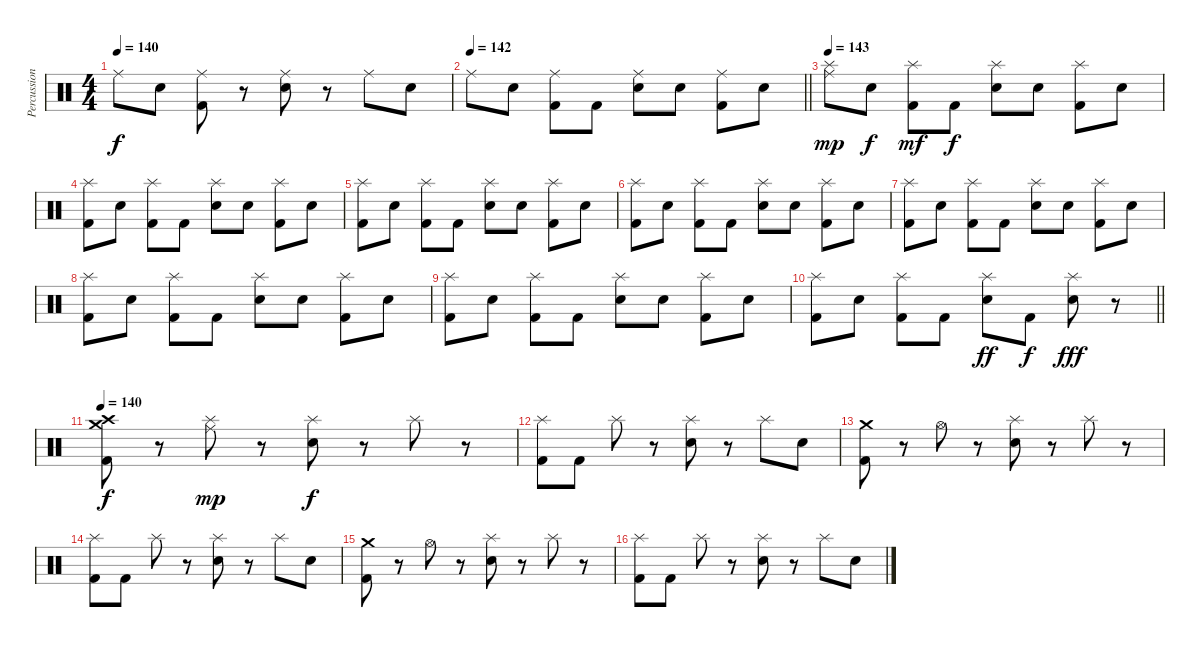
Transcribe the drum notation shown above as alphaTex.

\track ("Percussion" "Percussion") {instrument percussion}
\staff {score}
\articulation defaults
\ts (4 4)
\tempo 140
\clef neutral
\ks c "Ride (middle)".8{dy f} "Electric Snare (hit)".8
("Ride (middle)" "Kick (hit) 2").8 r.8 ("Ride (middle)" "Electric Snare (hit)").8 r.8 "Ride (middle)".8 "Electric Snare (hit)".8 |
\tempo 142
\barLineRight lightlight "Ride (middle)".8 "Electric Snare (hit)".8
("Ride (middle)" "Kick (hit) 2").8 "Kick (hit) 2".8 ("Ride (middle)" "Electric Snare (hit)").8 "Electric Snare (hit)".8 ("Ride (middle)" "Kick (hit) 2").8 "Electric Snare (hit)".8 |
\section ("" "")
\tempo 143
("Ride (middle)" "Splash (hit)").8{dy mp} "Electric Snare (hit)".8{dy f} ("Splash (hit)" "Kick (hit) 2").8{dy mf} "Kick (hit) 2".8{dy f} ("Splash (hit)" "Electric Snare (hit)").8 "Electric Snare (hit)".8 ("Splash (hit)" "Kick (hit) 2").8 "Electric Snare (hit)".8 |
("Splash (hit)" "Kick (hit) 2").8 "Electric Snare (hit)".8 ("Splash (hit)" "Kick (hit) 2").8 "Kick (hit) 2".8 ("Splash (hit)" "Electric Snare (hit)").8 "Electric Snare (hit)".8 ("Splash (hit)" "Kick (hit) 2").8 "Electric Snare (hit)".8 |
("Splash (hit)" "Kick (hit) 2").8 "Electric Snare (hit)".8 ("Splash (hit)" "Kick (hit) 2").8 "Kick (hit) 2".8 ("Splash (hit)" "Electric Snare (hit)").8 "Electric Snare (hit)".8 ("Splash (hit)" "Kick (hit) 2").8 "Electric Snare (hit)".8 |
("Splash (hit)" "Kick (hit) 2").8 "Electric Snare (hit)".8 ("Splash (hit)" "Kick (hit) 2").8 "Kick (hit) 2".8 ("Splash (hit)" "Electric Snare (hit)").8 "Electric Snare (hit)".8 ("Splash (hit)" "Kick (hit) 2").8 "Electric Snare (hit)".8 |
("Splash (hit)" "Kick (hit) 2").8 "Electric Snare (hit)".8 ("Splash (hit)" "Kick (hit) 2").8 "Kick (hit) 2".8 ("Splash (hit)" "Electric Snare (hit)").8 "Electric Snare (hit)".8 ("Splash (hit)" "Kick (hit) 2").8 "Electric Snare (hit)".8 |
("Splash (hit)" "Kick (hit) 2").8 "Electric Snare (hit)".8 ("Splash (hit)" "Kick (hit) 2").8 "Kick (hit) 2".8 ("Splash (hit)" "Electric Snare (hit)").8 "Electric Snare (hit)".8 ("Splash (hit)" "Kick (hit) 2").8 "Electric Snare (hit)".8 |
("Splash (hit)" "Kick (hit) 2").8 "Electric Snare (hit)".8 ("Splash (hit)" "Kick (hit) 2").8 "Kick (hit) 2".8 ("Splash (hit)" "Electric Snare (hit)").8 "Electric Snare (hit)".8 ("Splash (hit)" "Kick (hit) 2").8 "Electric Snare (hit)".8 |
\barLineRight lightlight
("Splash (hit)" "Kick (hit) 2").8 "Electric Snare (hit)".8 ("Splash (hit)" "Kick (hit) 2").8 "Kick (hit) 2".8 ("Splash (hit)" "Electric Snare (hit)").8{dy ff} "Kick (hit) 2".8{dy f} ("Splash (hit)" "Electric Snare (hit)").8{dy fff} r.8 |
\section ("" "")
\tempo 140
("Crash medium (hit)" "Crash high (hit)" "Kick (hit) 2").8{dy f} r.8 ("Splash (hit)" "Ride (middle)").8{dy mp} r.8 ("Splash (hit)" "Electric Snare (hit)").8{dy f} r.8 "Splash (hit)".8 r.8 |
("Splash (hit)" "Kick (hit) 2").8 "Kick (hit) 2".8 "Splash (hit)".8 r.8 ("Splash (hit)" "Electric Snare (hit)").8 r.8 "Splash (hit)".8 "Electric Snare (hit)".8 |
("Crash medium (hit)" "Kick (hit) 2").8 r.8 "Hi-Hat (open)".8 r.8 ("Splash (hit)" "Electric Snare (hit)").8 r.8 "Splash (hit)".8 r.8 |
("Splash (hit)" "Kick (hit) 2").8 "Kick (hit) 2".8 "Splash (hit)".8 r.8 ("Splash (hit)" "Electric Snare (hit)").8 r.8 "Splash (hit)".8 "Electric Snare (hit)".8 |
("Crash medium (hit)" "Kick (hit) 2").8 r.8 "Hi-Hat (open)".8 r.8 ("Splash (hit)" "Electric Snare (hit)").8 r.8 "Splash (hit)".8 r.8 |
("Splash (hit)" "Kick (hit) 2").8 "Kick (hit) 2".8 "Splash (hit)".8 r.8 ("Splash (hit)" "Electric Snare (hit)").8 r.8 "Splash (hit)".8 "Electric Snare (hit)".8
